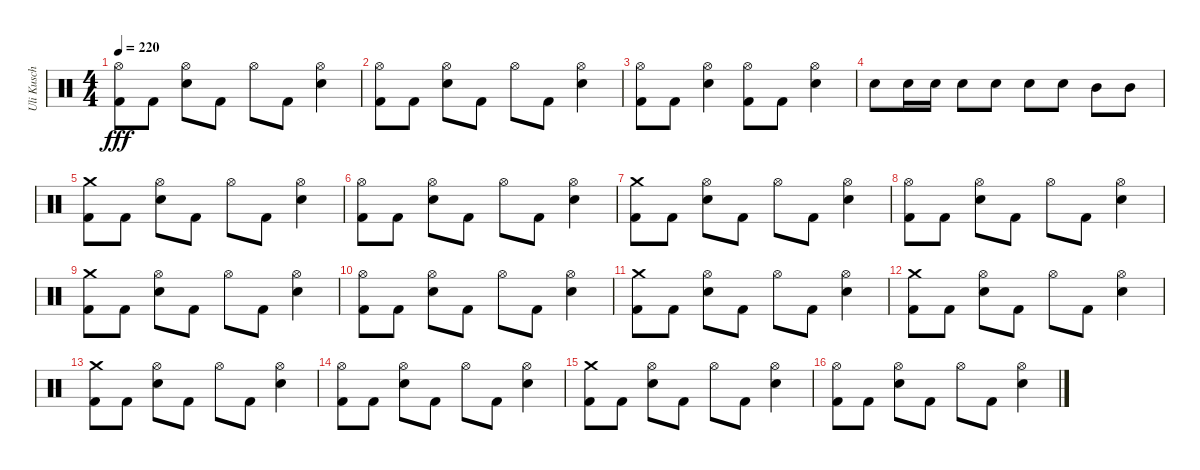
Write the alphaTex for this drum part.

\track ("Uli Kusch" "Uli Kusch") {instrument percussion}
\staff {score}
\articulation defaults
\ts (4 4)
\tempo 220
\clef neutral
\ks c
("Hi-Hat (open)" "Kick (hit) 2").8{dy fff} "Kick (hit) 2".8 ("Hi-Hat (open)" "Snare (hit) 2").8 "Kick (hit) 2".8 "Hi-Hat (open)".8 "Kick (hit) 2".8 ("Hi-Hat (open)" "Snare (hit) 2").4 |
("Hi-Hat (open)" "Kick (hit) 2").8 "Kick (hit) 2".8 ("Hi-Hat (open)" "Snare (hit) 2").8 "Kick (hit) 2".8 "Hi-Hat (open)".8 "Kick (hit) 2".8 ("Hi-Hat (open)" "Snare (hit) 2").4 |
("Hi-Hat (open)" "Kick (hit) 2").8 "Kick (hit) 2".8 ("Hi-Hat (open)" "Snare (hit) 2").4 ("Hi-Hat (open)" "Kick (hit) 2").8 "Kick (hit) 2".8 ("Hi-Hat (open)" "Snare (hit) 2").4 |
"Snare (hit) 2".8 "Snare (hit) 2".16 "Snare (hit) 2".16 "Snare (hit) 2".8 "Snare (hit) 2".8 "Snare (hit) 2".8 "Snare (hit) 2".8 "Mid Tom (hit)".8 "Mid Tom (hit)".8 |
("Crash medium (hit)" "Kick (hit) 2").8 "Kick (hit) 2".8 ("Hi-Hat (open)" "Snare (hit) 2").8 "Kick (hit) 2".8 "Hi-Hat (open)".8 "Kick (hit) 2".8 ("Hi-Hat (open)" "Snare (hit) 2").4 |
("Hi-Hat (open)" "Kick (hit) 2").8 "Kick (hit) 2".8 ("Hi-Hat (open)" "Snare (hit) 2").8 "Kick (hit) 2".8 "Hi-Hat (open)".8 "Kick (hit) 2".8 ("Hi-Hat (open)" "Snare (hit) 2").4 |
("Crash medium (hit)" "Kick (hit) 2").8 "Kick (hit) 2".8 ("Hi-Hat (open)" "Snare (hit) 2").8 "Kick (hit) 2".8 "Hi-Hat (open)".8 "Kick (hit) 2".8 ("Hi-Hat (open)" "Snare (hit) 2").4 |
("Hi-Hat (open)" "Kick (hit) 2").8 "Kick (hit) 2".8 ("Hi-Hat (open)" "Snare (hit) 2").8 "Kick (hit) 2".8 "Hi-Hat (open)".8 "Kick (hit) 2".8 ("Hi-Hat (open)" "Snare (hit) 2").4 |
("Crash medium (hit)" "Kick (hit) 2").8 "Kick (hit) 2".8 ("Hi-Hat (open)" "Snare (hit) 2").8 "Kick (hit) 2".8 "Hi-Hat (open)".8 "Kick (hit) 2".8 ("Hi-Hat (open)" "Snare (hit) 2").4 |
("Hi-Hat (open)" "Kick (hit) 2").8 "Kick (hit) 2".8 ("Hi-Hat (open)" "Snare (hit) 2").8 "Kick (hit) 2".8 "Hi-Hat (open)".8 "Kick (hit) 2".8 ("Hi-Hat (open)" "Snare (hit) 2").4 |
("Crash medium (hit)" "Kick (hit) 2").8 "Kick (hit) 2".8 ("Hi-Hat (open)" "Snare (hit) 2").8 "Kick (hit) 2".8 "Hi-Hat (open)".8 "Kick (hit) 2".8 ("Hi-Hat (open)" "Snare (hit) 2").4 |
("Crash medium (hit)" "Kick (hit) 2").8 "Kick (hit) 2".8 ("Hi-Hat (open)" "Snare (hit) 2").8 "Kick (hit) 2".8 "Hi-Hat (open)".8 "Kick (hit) 2".8 ("Hi-Hat (open)" "Snare (hit) 2").4 |
("Crash medium (hit)" "Kick (hit) 2").8 "Kick (hit) 2".8 ("Hi-Hat (open)" "Snare (hit) 2").8 "Kick (hit) 2".8 "Hi-Hat (open)".8 "Kick (hit) 2".8 ("Hi-Hat (open)" "Snare (hit) 2").4 |
("Hi-Hat (open)" "Kick (hit) 2").8 "Kick (hit) 2".8 ("Hi-Hat (open)" "Snare (hit) 2").8 "Kick (hit) 2".8 "Hi-Hat (open)".8 "Kick (hit) 2".8 ("Hi-Hat (open)" "Snare (hit) 2").4 |
("Crash medium (hit)" "Kick (hit) 2").8 "Kick (hit) 2".8 ("Hi-Hat (open)" "Snare (hit) 2").8 "Kick (hit) 2".8 "Hi-Hat (open)".8 "Kick (hit) 2".8 ("Hi-Hat (open)" "Snare (hit) 2").4 |
("Hi-Hat (open)" "Kick (hit) 2").8 "Kick (hit) 2".8 ("Hi-Hat (open)" "Snare (hit) 2").8 "Kick (hit) 2".8 "Hi-Hat (open)".8 "Kick (hit) 2".8 ("Hi-Hat (open)" "Snare (hit) 2").4
